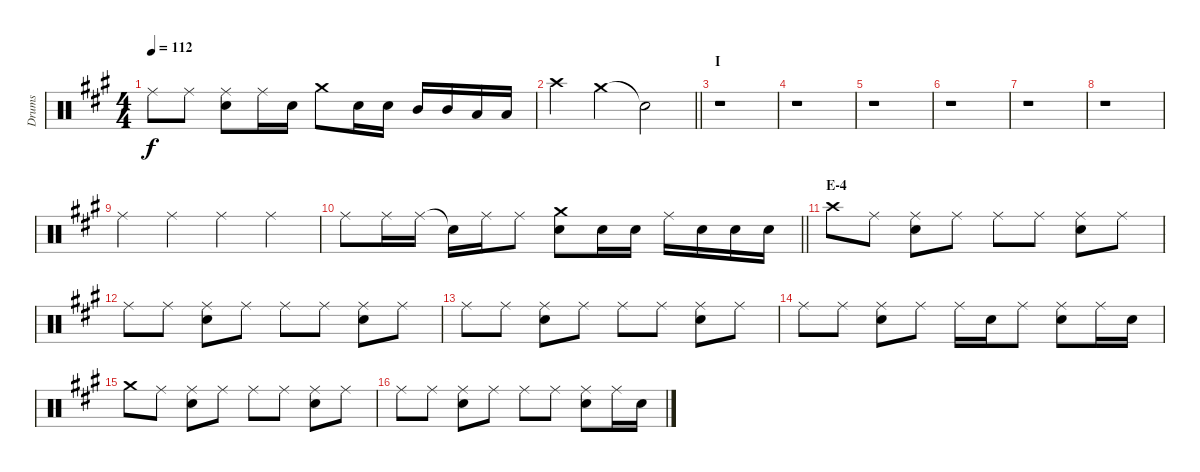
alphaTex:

\track ("Drums" "Drums") {instrument percussion}
\staff {score}
\articulation defaults
\ts (4 4)
\tempo 112
\clef neutral
\ks a "Ride (middle)".8{dy f} "Ride (middle)".8
("Ride (middle)" "Snare (hit) 2").8 "Ride (middle)".16 "Snare (hit) 2".16 "Crash medium (hit)".8 "Snare (hit) 2".16 "Snare (hit) 2".16 "Mid Tom (hit)".16 "Mid Tom (hit)".16 "Low Tom (hit)".16 "Low Tom (hit)".16 |
\barLineRight lightlight "Crash high (hit)".4 "Crash medium (hit)".4 "Snare (hit)"{t}.2
|
\section ("" "I")
r.1 |
r.1 |
r.1 |
r.1 |
r.1 |
r.1 |
"Ride (middle)".4 "Ride (middle)".4 "Ride (middle)".4 "Ride (middle)".4 |
\barLineRight lightlight "Ride (middle)".8 "Ride (middle)".16 "Ride (middle)".16 "Snare (hit)"{t}.16 "Ride (middle)".16 "Ride (middle)".8
("Crash medium (hit)" "Snare (hit) 2").8 "Snare (hit) 2".16 "Snare (hit) 2".16 "Ride (middle)".16 "Snare (hit) 2".16 "Snare (hit) 2".16 "Snare (hit) 2".16 |
\section ("" "E-4")
"Crash high (hit)".8 "Ride (middle)".8 ("Ride (middle)" "Snare (hit) 2").8 "Ride (middle)".8 "Ride (middle)".8 "Ride (middle)".8 ("Ride (middle)" "Snare (hit) 2").8 "Ride (middle)".8 |
"Ride (middle)".8 "Ride (middle)".8 ("Ride (middle)" "Snare (hit) 2").8 "Ride (middle)".8 "Ride (middle)".8 "Ride (middle)".8 ("Ride (middle)" "Snare (hit) 2").8 "Ride (middle)".8 |
"Ride (middle)".8 "Ride (middle)".8 ("Ride (middle)" "Snare (hit) 2").8 "Ride (middle)".8 "Ride (middle)".8 "Ride (middle)".8 ("Ride (middle)" "Snare (hit) 2").8 "Ride (middle)".8 |
"Ride (middle)".8 "Ride (middle)".8 ("Ride (middle)" "Snare (hit) 2").8 "Ride (middle)".8 "Ride (middle)".16 "Snare (hit) 2".16 "Ride (middle)".8 ("Ride (middle)" "Snare (hit) 2").8 "Ride (middle)".16 "Snare (hit) 2".16 |
"Crash medium (hit)".8 "Ride (middle)".8 ("Ride (middle)" "Snare (hit) 2").8 "Ride (middle)".8 "Ride (middle)".8 "Ride (middle)".8 ("Ride (middle)" "Snare (hit) 2").8 "Ride (middle)".8 |
"Ride (middle)".8 "Ride (middle)".8 ("Ride (middle)" "Snare (hit) 2").8 "Ride (middle)".8 "Ride (middle)".8 "Ride (middle)".8 ("Ride (middle)" "Snare (hit) 2").8 "Ride (middle)".16 "Snare (hit) 2".16
